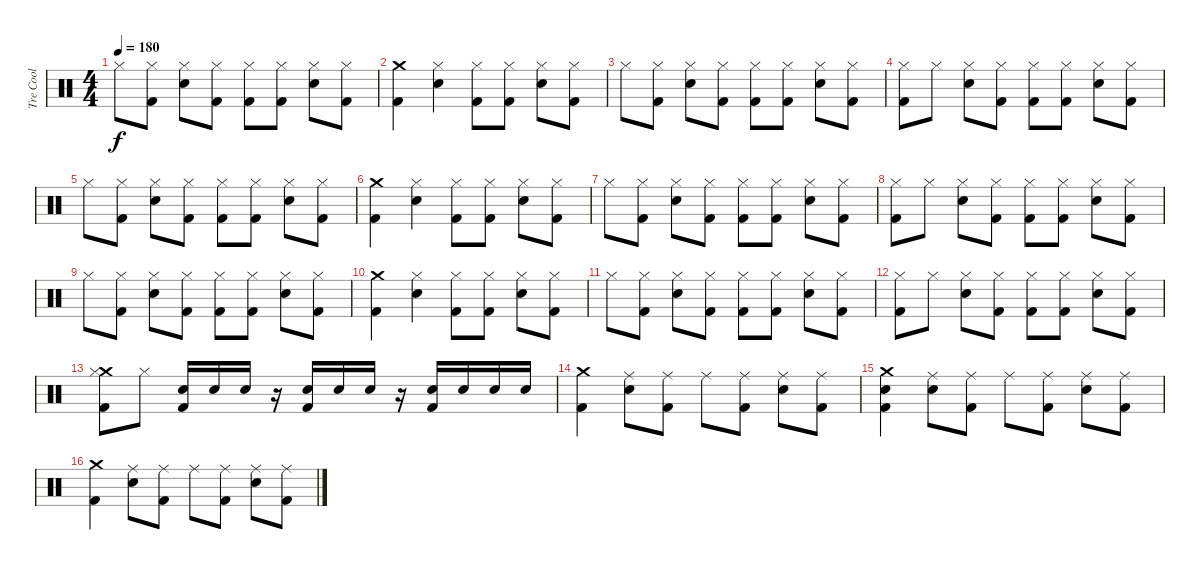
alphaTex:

\track ("Tre Cool" "Tre Cool") {instrument percussion}
\staff {score}
\articulation defaults
\ts (4 4)
\tempo 180
\clef neutral
\ks c "Hi-Hat (closed)".8{dy f}
("Hi-Hat (closed)" "Kick (hit) 2").8 ("Hi-Hat (closed)" "Snare (hit) 2").8 ("Hi-Hat (closed)" "Kick (hit) 2").8 ("Hi-Hat (closed)" "Kick (hit) 2").8 ("Hi-Hat (closed)" "Kick (hit) 2").8 ("Hi-Hat (closed)" "Snare (hit) 2").8 ("Hi-Hat (closed)" "Kick (hit) 2").8 |
("Crash medium (hit)" "Kick (hit) 2").4 ("Hi-Hat (closed)" "Snare (hit) 2").4 ("Hi-Hat (closed)" "Kick (hit) 2").8 ("Hi-Hat (closed)" "Kick (hit) 2").8 ("Hi-Hat (closed)" "Snare (hit) 2").8 ("Hi-Hat (closed)" "Kick (hit) 2").8 |
"Hi-Hat (closed)".8 ("Hi-Hat (closed)" "Kick (hit) 2").8 ("Hi-Hat (closed)" "Snare (hit) 2").8 ("Hi-Hat (closed)" "Kick (hit) 2").8 ("Hi-Hat (closed)" "Kick (hit) 2").8 ("Hi-Hat (closed)" "Kick (hit) 2").8 ("Hi-Hat (closed)" "Snare (hit) 2").8 ("Hi-Hat (closed)" "Kick (hit) 2").8 |
("Hi-Hat (closed)" "Kick (hit) 2").8 "Hi-Hat (closed)".8 ("Hi-Hat (closed)" "Snare (hit) 2").8 ("Hi-Hat (closed)" "Kick (hit) 2").8 ("Hi-Hat (closed)" "Kick (hit) 2").8 ("Hi-Hat (closed)" "Kick (hit) 2").8 ("Hi-Hat (closed)" "Snare (hit) 2").8 ("Hi-Hat (closed)" "Kick (hit) 2").8 |
"Hi-Hat (closed)".8 ("Hi-Hat (closed)" "Kick (hit) 2").8 ("Hi-Hat (closed)" "Snare (hit) 2").8 ("Hi-Hat (closed)" "Kick (hit) 2").8 ("Hi-Hat (closed)" "Kick (hit) 2").8 ("Hi-Hat (closed)" "Kick (hit) 2").8 ("Hi-Hat (closed)" "Snare (hit) 2").8 ("Hi-Hat (closed)" "Kick (hit) 2").8 |
("Crash medium (hit)" "Kick (hit) 2").4 ("Hi-Hat (closed)" "Snare (hit) 2").4 ("Hi-Hat (closed)" "Kick (hit) 2").8 ("Hi-Hat (closed)" "Kick (hit) 2").8 ("Hi-Hat (closed)" "Snare (hit) 2").8 ("Hi-Hat (closed)" "Kick (hit) 2").8 |
"Hi-Hat (closed)".8 ("Hi-Hat (closed)" "Kick (hit) 2").8 ("Hi-Hat (closed)" "Snare (hit) 2").8 ("Hi-Hat (closed)" "Kick (hit) 2").8 ("Hi-Hat (closed)" "Kick (hit) 2").8 ("Hi-Hat (closed)" "Kick (hit) 2").8 ("Hi-Hat (closed)" "Snare (hit) 2").8 ("Hi-Hat (closed)" "Kick (hit) 2").8 |
("Hi-Hat (closed)" "Kick (hit) 2").8 "Hi-Hat (closed)".8 ("Hi-Hat (closed)" "Snare (hit) 2").8 ("Hi-Hat (closed)" "Kick (hit) 2").8 ("Hi-Hat (closed)" "Kick (hit) 2").8 ("Hi-Hat (closed)" "Kick (hit) 2").8 ("Hi-Hat (closed)" "Snare (hit) 2").8 ("Hi-Hat (closed)" "Kick (hit) 2").8 |
"Hi-Hat (closed)".8 ("Hi-Hat (closed)" "Kick (hit) 2").8 ("Hi-Hat (closed)" "Snare (hit) 2").8 ("Hi-Hat (closed)" "Kick (hit) 2").8 ("Hi-Hat (closed)" "Kick (hit) 2").8 ("Hi-Hat (closed)" "Kick (hit) 2").8 ("Hi-Hat (closed)" "Snare (hit) 2").8 ("Hi-Hat (closed)" "Kick (hit) 2").8 |
("Crash medium (hit)" "Kick (hit) 2").4 ("Hi-Hat (closed)" "Snare (hit) 2").4 ("Hi-Hat (closed)" "Kick (hit) 2").8 ("Hi-Hat (closed)" "Kick (hit) 2").8 ("Hi-Hat (closed)" "Snare (hit) 2").8 ("Hi-Hat (closed)" "Kick (hit) 2").8 |
"Hi-Hat (closed)".8 ("Hi-Hat (closed)" "Kick (hit) 2").8 ("Hi-Hat (closed)" "Snare (hit) 2").8 ("Hi-Hat (closed)" "Kick (hit) 2").8 ("Hi-Hat (closed)" "Kick (hit) 2").8 ("Hi-Hat (closed)" "Kick (hit) 2").8 ("Hi-Hat (closed)" "Snare (hit) 2").8 ("Hi-Hat (closed)" "Kick (hit) 2").8 |
("Hi-Hat (closed)" "Kick (hit) 2").8 "Hi-Hat (closed)".8 ("Hi-Hat (closed)" "Snare (hit) 2").8 ("Hi-Hat (closed)" "Kick (hit) 2").8 ("Hi-Hat (closed)" "Kick (hit) 2").8 ("Hi-Hat (closed)" "Kick (hit) 2").8 ("Hi-Hat (closed)" "Snare (hit) 2").8 ("Hi-Hat (closed)" "Kick (hit) 2").8 |
("Crash medium (hit)" "Hi-Hat (closed)" "Kick (hit) 2").8 "Hi-Hat (closed)".8 ("Snare (hit) 2" "Kick (hit) 2").16 "Snare (hit) 2".16 "Snare (hit) 2".16 r.16 ("Snare (hit) 2" "Kick (hit) 2").16 "Snare (hit) 2".16 "Snare (hit) 2".16 r.16 ("Snare (hit) 2" "Kick (hit) 2").16 "Snare (hit) 2".16 "Snare (hit) 2".16 "Snare (hit) 2".16 |
("Crash medium (hit)" "Kick (hit) 2").4 ("Ride (middle)" "Snare (hit) 2").8 ("Ride (middle)" "Kick (hit) 2").8 "Ride (middle)".8 ("Ride (middle)" "Kick (hit) 2").8 ("Ride (middle)" "Snare (hit) 2").8 ("Ride (middle)" "Kick (hit) 2").8 |
("Crash medium (hit)" "Snare (hit) 2" "Kick (hit) 2").4 ("Ride (middle)" "Snare (hit) 2").8 ("Ride (middle)" "Kick (hit) 2").8 "Ride (middle)".8 ("Ride (middle)" "Kick (hit) 2").8 ("Ride (middle)" "Snare (hit) 2").8 ("Ride (middle)" "Kick (hit) 2").8 |
("Crash medium (hit)" "Kick (hit) 2").4 ("Ride (middle)" "Snare (hit) 2").8 ("Ride (middle)" "Kick (hit) 2").8 "Ride (middle)".8 ("Ride (middle)" "Kick (hit) 2").8 ("Ride (middle)" "Snare (hit) 2").8 ("Ride (middle)" "Kick (hit) 2").8
